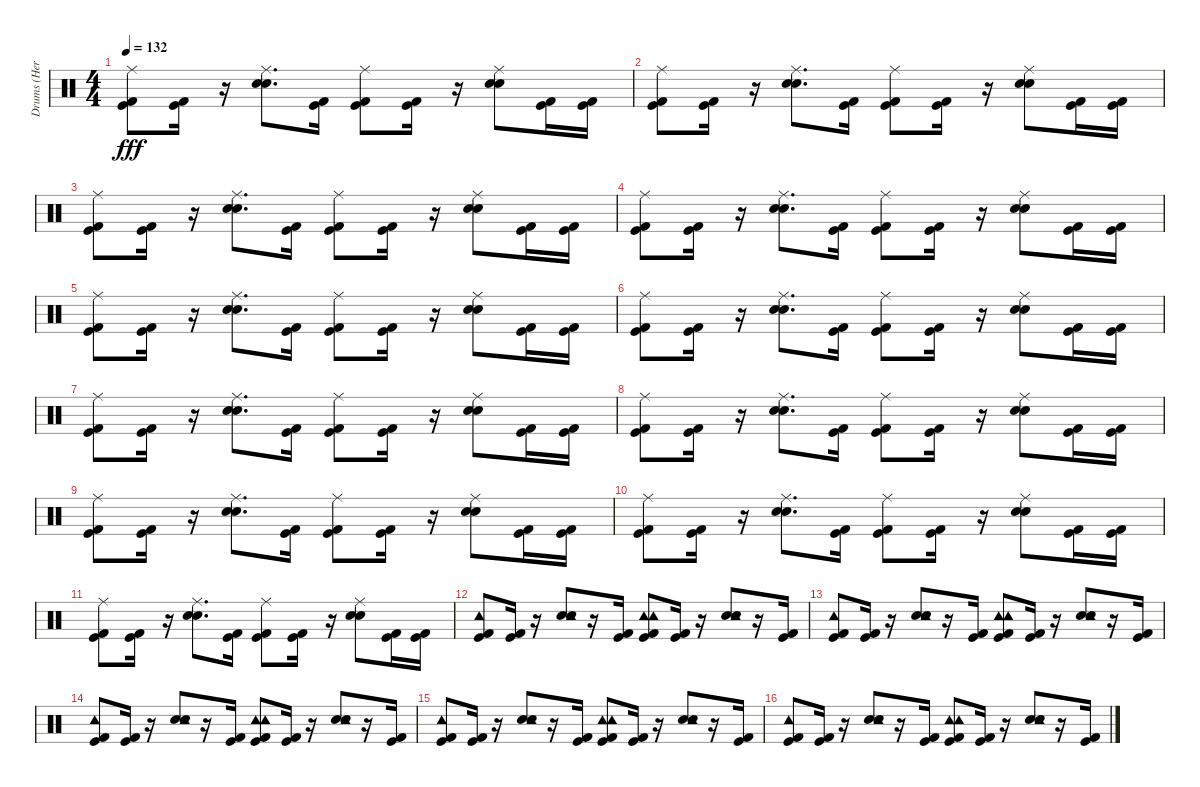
\track ("Drums (Herb Alexander)" "Drums (Her") {instrument percussion}
\staff {score}
\articulation defaults
\ts (4 4)
\tempo 132
\clef neutral
\ks c
("Ride (middle)" "Kick (hit)" "Kick (hit) 2").8{dy fff} ("Kick (hit)" "Kick (hit) 2").16 r.16 ("Ride (middle)" "Snare (hit) 2" "Hand Clap (hit)").8{d} ("Kick (hit)" "Kick (hit) 2").16 ("Ride (middle)" "Kick (hit)" "Kick (hit) 2").8 ("Kick (hit)" "Kick (hit) 2").16 r.16 ("Ride (middle)" "Snare (hit) 2" "Hand Clap (hit)").8 ("Kick (hit)" "Kick (hit) 2").16 ("Kick (hit)" "Kick (hit) 2").16 |
("Ride (middle)" "Kick (hit)" "Kick (hit) 2").8 ("Kick (hit)" "Kick (hit) 2").16 r.16 ("Ride (middle)" "Snare (hit) 2" "Hand Clap (hit)").8{d} ("Kick (hit)" "Kick (hit) 2").16 ("Ride (middle)" "Kick (hit)" "Kick (hit) 2").8 ("Kick (hit)" "Kick (hit) 2").16 r.16 ("Ride (middle)" "Snare (hit) 2" "Hand Clap (hit)").8 ("Kick (hit)" "Kick (hit) 2").16 ("Kick (hit)" "Kick (hit) 2").16 |
("Ride (middle)" "Kick (hit)" "Kick (hit) 2").8 ("Kick (hit)" "Kick (hit) 2").16 r.16 ("Ride (middle)" "Snare (hit) 2" "Hand Clap (hit)").8{d} ("Kick (hit)" "Kick (hit) 2").16 ("Ride (middle)" "Kick (hit)" "Kick (hit) 2").8 ("Kick (hit)" "Kick (hit) 2").16 r.16 ("Ride (middle)" "Snare (hit) 2" "Hand Clap (hit)").8 ("Kick (hit)" "Kick (hit) 2").16 ("Kick (hit)" "Kick (hit) 2").16 |
("Ride (middle)" "Kick (hit)" "Kick (hit) 2").8 ("Kick (hit)" "Kick (hit) 2").16 r.16 ("Ride (middle)" "Snare (hit) 2" "Hand Clap (hit)").8{d} ("Kick (hit)" "Kick (hit) 2").16 ("Ride (middle)" "Kick (hit)" "Kick (hit) 2").8 ("Kick (hit)" "Kick (hit) 2").16 r.16 ("Ride (middle)" "Snare (hit) 2" "Hand Clap (hit)").8 ("Kick (hit)" "Kick (hit) 2").16 ("Kick (hit)" "Kick (hit) 2").16 |
("Ride (middle)" "Kick (hit)" "Kick (hit) 2").8 ("Kick (hit)" "Kick (hit) 2").16 r.16 ("Ride (middle)" "Snare (hit) 2" "Hand Clap (hit)").8{d} ("Kick (hit)" "Kick (hit) 2").16 ("Ride (middle)" "Kick (hit)" "Kick (hit) 2").8 ("Kick (hit)" "Kick (hit) 2").16 r.16 ("Ride (middle)" "Snare (hit) 2" "Hand Clap (hit)").8 ("Kick (hit)" "Kick (hit) 2").16 ("Kick (hit)" "Kick (hit) 2").16 |
("Ride (middle)" "Kick (hit)" "Kick (hit) 2").8 ("Kick (hit)" "Kick (hit) 2").16 r.16 ("Ride (middle)" "Snare (hit) 2" "Hand Clap (hit)").8{d} ("Kick (hit)" "Kick (hit) 2").16 ("Ride (middle)" "Kick (hit)" "Kick (hit) 2").8 ("Kick (hit)" "Kick (hit) 2").16 r.16 ("Ride (middle)" "Snare (hit) 2" "Hand Clap (hit)").8 ("Kick (hit)" "Kick (hit) 2").16 ("Kick (hit)" "Kick (hit) 2").16 |
("Ride (middle)" "Kick (hit)" "Kick (hit) 2").8 ("Kick (hit)" "Kick (hit) 2").16 r.16 ("Ride (middle)" "Snare (hit) 2" "Hand Clap (hit)").8{d} ("Kick (hit)" "Kick (hit) 2").16 ("Ride (middle)" "Kick (hit)" "Kick (hit) 2").8 ("Kick (hit)" "Kick (hit) 2").16 r.16 ("Ride (middle)" "Snare (hit) 2" "Hand Clap (hit)").8 ("Kick (hit)" "Kick (hit) 2").16 ("Kick (hit)" "Kick (hit) 2").16 |
("Ride (middle)" "Kick (hit)" "Kick (hit) 2").8 ("Kick (hit)" "Kick (hit) 2").16 r.16 ("Ride (middle)" "Snare (hit) 2" "Hand Clap (hit)").8{d} ("Kick (hit)" "Kick (hit) 2").16 ("Ride (middle)" "Kick (hit)" "Kick (hit) 2").8 ("Kick (hit)" "Kick (hit) 2").16 r.16 ("Ride (middle)" "Snare (hit) 2" "Hand Clap (hit)").8 ("Kick (hit)" "Kick (hit) 2").16 ("Kick (hit)" "Kick (hit) 2").16 |
("Ride (middle)" "Kick (hit)" "Kick (hit) 2").8 ("Kick (hit)" "Kick (hit) 2").16 r.16 ("Ride (middle)" "Snare (hit) 2" "Hand Clap (hit)").8{d} ("Kick (hit)" "Kick (hit) 2").16 ("Ride (middle)" "Kick (hit)" "Kick (hit) 2").8 ("Kick (hit)" "Kick (hit) 2").16 r.16 ("Ride (middle)" "Snare (hit) 2" "Hand Clap (hit)").8 ("Kick (hit)" "Kick (hit) 2").16 ("Kick (hit)" "Kick (hit) 2").16 |
("Ride (middle)" "Kick (hit)" "Kick (hit) 2").8 ("Kick (hit)" "Kick (hit) 2").16 r.16 ("Ride (middle)" "Snare (hit) 2" "Hand Clap (hit)").8{d} ("Kick (hit)" "Kick (hit) 2").16 ("Ride (middle)" "Kick (hit)" "Kick (hit) 2").8 ("Kick (hit)" "Kick (hit) 2").16 r.16 ("Ride (middle)" "Snare (hit) 2" "Hand Clap (hit)").8 ("Kick (hit)" "Kick (hit) 2").16 ("Kick (hit)" "Kick (hit) 2").16 |
("Ride (middle)" "Kick (hit)" "Kick (hit) 2").8 ("Kick (hit)" "Kick (hit) 2").16 r.16 ("Ride (middle)" "Snare (hit) 2" "Hand Clap (hit)").8{d} ("Kick (hit)" "Kick (hit) 2").16 ("Ride (middle)" "Kick (hit)" "Kick (hit) 2").8 ("Kick (hit)" "Kick (hit) 2").16 r.16 ("Ride (middle)" "Snare (hit) 2" "Hand Clap (hit)").8 ("Kick (hit)" "Kick (hit) 2").16 ("Kick (hit)" "Kick (hit) 2").16 |
("Tambourine (hit)" "Kick (hit)" "Kick (hit) 2").8 ("Kick (hit)" "Kick (hit) 2").16 r.16 ("Snare (hit) 2" "Hand Clap (hit)" "Tambourine (hit)").8 r.16 ("Kick (hit)" "Kick (hit) 2").16 ("Tambourine (hit)" "Kick (hit)" "Kick (hit) 2" "Tambourine (hit)").8 ("Kick (hit)" "Kick (hit) 2").16 r.16 ("Snare (hit) 2" "Hand Clap (hit)" "Tambourine (hit)").8 r.16 ("Kick (hit)" "Kick (hit) 2").16 |
("Tambourine (hit)" "Kick (hit)" "Kick (hit) 2").8 ("Kick (hit)" "Kick (hit) 2").16 r.16 ("Snare (hit) 2" "Hand Clap (hit)" "Tambourine (hit)").8 r.16 ("Kick (hit)" "Kick (hit) 2").16 ("Tambourine (hit)" "Kick (hit)" "Kick (hit) 2" "Tambourine (hit)").8 ("Kick (hit)" "Kick (hit) 2").16 r.16 ("Snare (hit) 2" "Hand Clap (hit)" "Tambourine (hit)").8 r.16 ("Kick (hit)" "Kick (hit) 2").16 |
("Tambourine (hit)" "Kick (hit)" "Kick (hit) 2").8 ("Kick (hit)" "Kick (hit) 2").16 r.16 ("Snare (hit) 2" "Hand Clap (hit)" "Tambourine (hit)").8 r.16 ("Kick (hit)" "Kick (hit) 2").16 ("Tambourine (hit)" "Kick (hit)" "Kick (hit) 2" "Tambourine (hit)").8 ("Kick (hit)" "Kick (hit) 2").16 r.16 ("Snare (hit) 2" "Hand Clap (hit)" "Tambourine (hit)").8 r.16 ("Kick (hit)" "Kick (hit) 2").16 |
("Tambourine (hit)" "Kick (hit)" "Kick (hit) 2").8 ("Kick (hit)" "Kick (hit) 2").16 r.16 ("Snare (hit) 2" "Hand Clap (hit)" "Tambourine (hit)").8 r.16 ("Kick (hit)" "Kick (hit) 2").16 ("Tambourine (hit)" "Kick (hit)" "Kick (hit) 2" "Tambourine (hit)").8 ("Kick (hit)" "Kick (hit) 2").16 r.16 ("Snare (hit) 2" "Hand Clap (hit)" "Tambourine (hit)").8 r.16 ("Kick (hit)" "Kick (hit) 2").16 |
("Tambourine (hit)" "Kick (hit)" "Kick (hit) 2").8 ("Kick (hit)" "Kick (hit) 2").16 r.16 ("Snare (hit) 2" "Hand Clap (hit)" "Tambourine (hit)").8 r.16 ("Kick (hit)" "Kick (hit) 2").16 ("Tambourine (hit)" "Kick (hit)" "Kick (hit) 2" "Tambourine (hit)").8 ("Kick (hit)" "Kick (hit) 2").16 r.16 ("Snare (hit) 2" "Hand Clap (hit)" "Tambourine (hit)").8 r.16 ("Kick (hit)" "Kick (hit) 2").16
